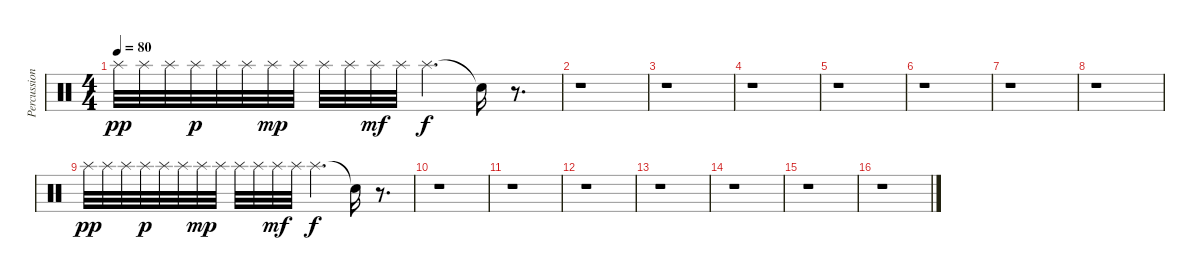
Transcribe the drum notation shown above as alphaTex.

\track ("Percussion" "Percussion") {instrument percussion}
\staff {score}
\articulation defaults
\ts (4 4)
\tempo 80
\clef neutral
\ks c "Splash (hit)".32{dy pp} "Splash (hit)".32 "Splash (hit)".32 "Splash (hit)".32{dy p} "Splash (hit)".32 "Splash (hit)".32 "Splash (hit)".32{dy mp} "Splash (hit)".32 "Splash (hit)".32 "Splash (hit)".32 "Splash (hit)".32{dy mf} "Splash (hit)".32 "Splash (hit)".4{d dy f} "Snare (hit)"{t}.16
r.8{d} |
r.1 |
r.1 |
r.1 |
r.1 |
r.1 |
r.1 |
r.1 |
"Splash (hit)".32{dy pp} "Splash (hit)".32 "Splash (hit)".32 "Splash (hit)".32{dy p} "Splash (hit)".32 "Splash (hit)".32 "Splash (hit)".32{dy mp} "Splash (hit)".32 "Splash (hit)".32 "Splash (hit)".32 "Splash (hit)".32{dy mf} "Splash (hit)".32 "Splash (hit)".4{d dy f} "Snare (hit)"{t}.16 r.8{d} |
r.1 |
r.1 |
r.1 |
r.1 |
r.1 |
r.1 |
r.1
